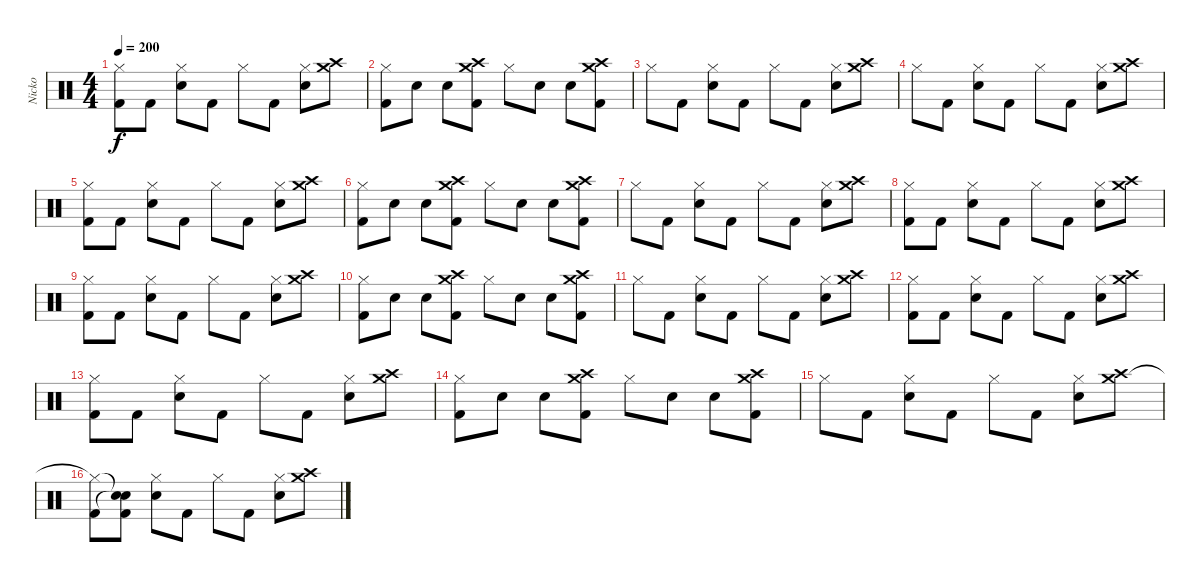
\track ("Nicko" "Nicko") {instrument percussion}
\staff {score}
\articulation defaults
\ts (4 4)
\tempo 200
\clef neutral
\ks c
("Hi-Hat (closed)" "Kick (hit) 2").8{dy f} "Kick (hit) 2".8 ("Hi-Hat (closed)" "Electric Snare (hit)").8 "Kick (hit) 2".8 "Hi-Hat (closed)".8 "Kick (hit) 2".8 ("Hi-Hat (closed)" "Electric Snare (hit)").8 ("Crash medium (hit)" "Crash high (hit)").8 |
("Hi-Hat (closed)" "Kick (hit) 2").8 "Electric Snare (hit)".8 "Electric Snare (hit)".8 ("Crash high (hit)" "Crash medium (hit)" "Kick (hit) 2").8 "Hi-Hat (closed)".8 "Electric Snare (hit)".8 "Electric Snare (hit)".8 ("Crash high (hit)" "Crash medium (hit)" "Kick (hit) 2").8 |
"Hi-Hat (closed)".8 "Kick (hit) 2".8 ("Hi-Hat (closed)" "Electric Snare (hit)").8 "Kick (hit) 2".8 "Hi-Hat (closed)".8 "Kick (hit) 2".8 ("Hi-Hat (closed)" "Electric Snare (hit)").8 ("Crash medium (hit)" "Crash high (hit)").8 |
"Hi-Hat (closed)".8 "Kick (hit) 2".8 ("Hi-Hat (closed)" "Electric Snare (hit)").8 "Kick (hit) 2".8 "Hi-Hat (closed)".8 "Kick (hit) 2".8 ("Hi-Hat (closed)" "Electric Snare (hit)").8 ("Crash medium (hit)" "Crash high (hit)").8 |
("Hi-Hat (closed)" "Kick (hit) 2").8 "Kick (hit) 2".8 ("Hi-Hat (closed)" "Electric Snare (hit)").8 "Kick (hit) 2".8 "Hi-Hat (closed)".8 "Kick (hit) 2".8 ("Hi-Hat (closed)" "Electric Snare (hit)").8 ("Crash medium (hit)" "Crash high (hit)").8 |
("Hi-Hat (closed)" "Kick (hit) 2").8 "Electric Snare (hit)".8 "Electric Snare (hit)".8 ("Crash high (hit)" "Crash medium (hit)" "Kick (hit) 2").8 "Hi-Hat (closed)".8 "Electric Snare (hit)".8 "Electric Snare (hit)".8 ("Crash high (hit)" "Crash medium (hit)" "Kick (hit) 2").8 |
"Hi-Hat (closed)".8 "Kick (hit) 2".8 ("Hi-Hat (closed)" "Electric Snare (hit)").8 "Kick (hit) 2".8 "Hi-Hat (closed)".8 "Kick (hit) 2".8 ("Hi-Hat (closed)" "Electric Snare (hit)").8 ("Crash medium (hit)" "Crash high (hit)").8 |
("Hi-Hat (closed)" "Kick (hit) 2").8 "Kick (hit) 2".8 ("Hi-Hat (closed)" "Electric Snare (hit)").8 "Kick (hit) 2".8 "Hi-Hat (closed)".8 "Kick (hit) 2".8 ("Hi-Hat (closed)" "Electric Snare (hit)").8 ("Crash medium (hit)" "Crash high (hit)").8 |
("Hi-Hat (closed)" "Kick (hit) 2").8 "Kick (hit) 2".8 ("Hi-Hat (closed)" "Electric Snare (hit)").8 "Kick (hit) 2".8 "Hi-Hat (closed)".8 "Kick (hit) 2".8 ("Hi-Hat (closed)" "Electric Snare (hit)").8 ("Crash medium (hit)" "Crash high (hit)").8 |
("Hi-Hat (closed)" "Kick (hit) 2").8 "Electric Snare (hit)".8 "Electric Snare (hit)".8 ("Crash high (hit)" "Crash medium (hit)" "Kick (hit) 2").8 "Hi-Hat (closed)".8 "Electric Snare (hit)".8 "Electric Snare (hit)".8 ("Crash high (hit)" "Crash medium (hit)" "Kick (hit) 2").8 |
"Hi-Hat (closed)".8 "Kick (hit) 2".8 ("Hi-Hat (closed)" "Electric Snare (hit)").8 "Kick (hit) 2".8 "Hi-Hat (closed)".8 "Kick (hit) 2".8 ("Hi-Hat (closed)" "Electric Snare (hit)").8 ("Crash medium (hit)" "Crash high (hit)").8 |
("Hi-Hat (closed)" "Kick (hit) 2").8 "Kick (hit) 2".8 ("Hi-Hat (closed)" "Electric Snare (hit)").8 "Kick (hit) 2".8 "Hi-Hat (closed)".8 "Kick (hit) 2".8 ("Hi-Hat (closed)" "Electric Snare (hit)").8 ("Crash medium (hit)" "Crash high (hit)").8 |
("Hi-Hat (closed)" "Kick (hit) 2").8 "Kick (hit) 2".8 ("Hi-Hat (closed)" "Electric Snare (hit)").8 "Kick (hit) 2".8 "Hi-Hat (closed)".8 "Kick (hit) 2".8 ("Hi-Hat (closed)" "Electric Snare (hit)").8 ("Crash medium (hit)" "Crash high (hit)").8 |
("Hi-Hat (closed)" "Kick (hit) 2").8 "Electric Snare (hit)".8 "Electric Snare (hit)".8 ("Crash high (hit)" "Crash medium (hit)" "Kick (hit) 2").8 "Hi-Hat (closed)".8 "Electric Snare (hit)".8 "Electric Snare (hit)".8 ("Crash high (hit)" "Crash medium (hit)" "Kick (hit) 2").8 |
"Hi-Hat (closed)".8 "Kick (hit) 2".8 ("Hi-Hat (closed)" "Electric Snare (hit)").8 "Kick (hit) 2".8 "Hi-Hat (closed)".8 "Kick (hit) 2".8 ("Hi-Hat (closed)" "Electric Snare (hit)").8 ("Crash medium (hit)" "Crash high (hit)").8 |
("Hi-Hat (closed)"{t} "Kick (hit) 2").8 ("Snare (hit)"{t} "Snare (hit)"{t} "Kick (hit) 2").8 ("Hi-Hat (closed)" "Electric Snare (hit)").8 "Kick (hit) 2".8 "Hi-Hat (closed)".8 "Kick (hit) 2".8 ("Hi-Hat (closed)" "Electric Snare (hit)").8 ("Crash medium (hit)" "Crash high (hit)").8
